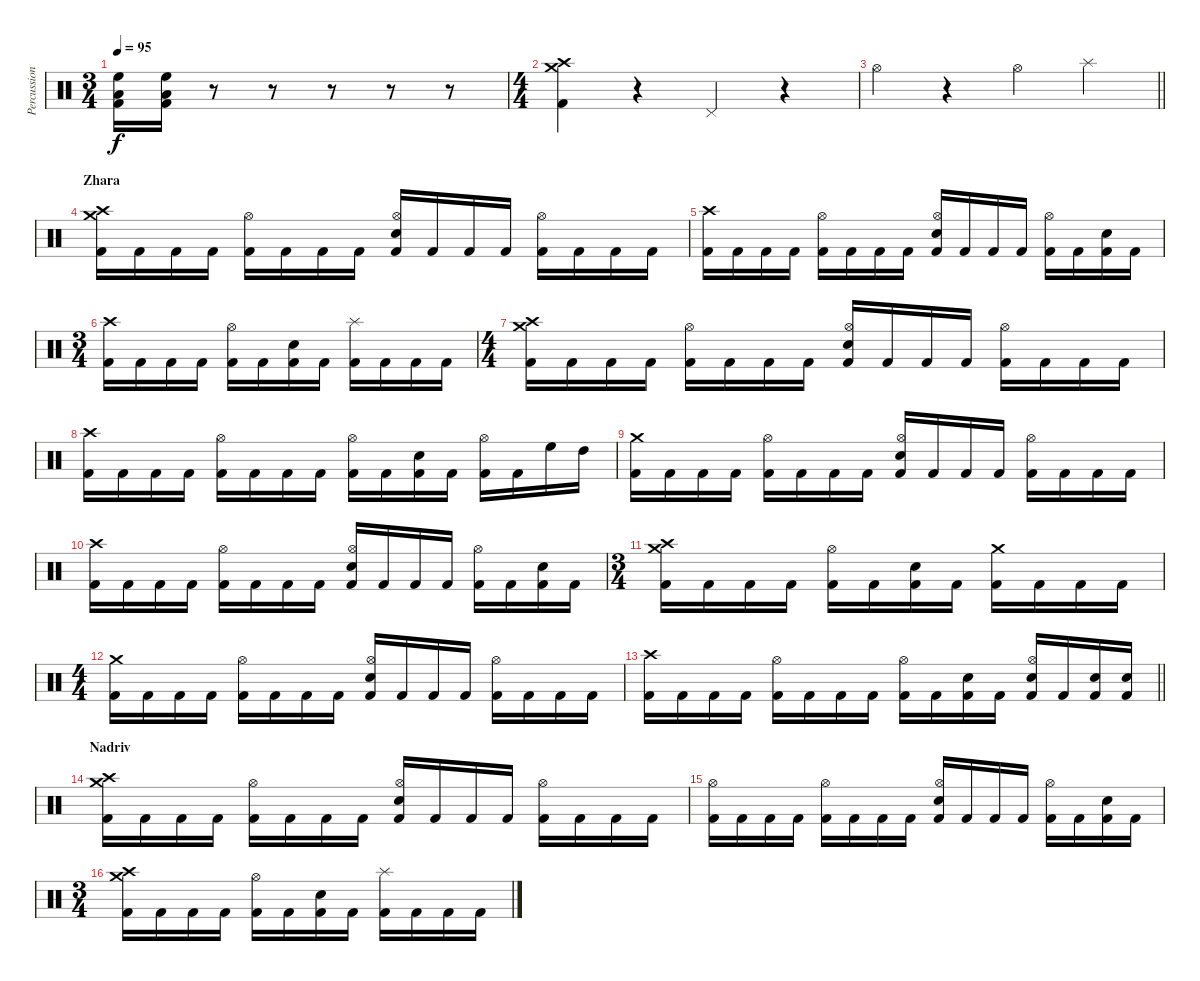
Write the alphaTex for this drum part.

\track ("Percussion" "Percussion") {instrument percussion}
\staff {score}
\articulation defaults
\ts (3 4)
\tempo 95
\clef neutral
\ks c
("High Floor Tom (hit)" "Low Tom (hit)" "Kick (hit) 2").16{dy f} ("High Floor Tom (hit)" "Low Tom (hit)" "Kick (hit) 2").16 r.8 r.8 r.8 r.8 r.8 |
\ts (4 4)
("Crash medium (hit)" "Crash high (hit)" "Kick (hit) 2").4 r.4 "Pedal Hi-Hat (hit)".4 r.4 |
\barLineRight lightlight "Hi-Hat (open)".4
r.4 "Hi-Hat (open)".4 "Splash (hit)".4 |
\section ("" "Zhara")
("Crash high (hit)" "Crash medium (hit)" "Kick (hit) 2").16 "Kick (hit) 2".16 "Kick (hit) 2".16 "Kick (hit) 2".16 ("Hi-Hat (open)" "Kick (hit) 2").16 "Kick (hit) 2".16 "Kick (hit) 2".16 "Kick (hit) 2".16 ("Hi-Hat (open)" "Electric Snare (hit)" "Kick (hit) 2").16 "Kick (hit) 2".16 "Kick (hit) 2".16 "Kick (hit) 2".16 ("Hi-Hat (open)" "Kick (hit) 2").16 "Kick (hit) 2".16 "Kick (hit) 2".16 "Kick (hit) 2".16 |
("Crash high (hit)" "Kick (hit) 2").16 "Kick (hit) 2".16 "Kick (hit) 2".16 "Kick (hit) 2".16 ("Hi-Hat (open)" "Kick (hit) 2").16 "Kick (hit) 2".16 "Kick (hit) 2".16 "Kick (hit) 2".16 ("Hi-Hat (open)" "Electric Snare (hit)" "Kick (hit) 2").16 "Kick (hit) 2".16 "Kick (hit) 2".16 "Kick (hit) 2".16 ("Hi-Hat (open)" "Kick (hit) 2").16 "Kick (hit) 2".16 ("Electric Snare (hit)" "Kick (hit) 2").16 "Kick (hit) 2".16 |
\ts (3 4)
("Crash high (hit)" "Kick (hit) 2").16 "Kick (hit) 2".16 "Kick (hit) 2".16 "Kick (hit) 2".16 ("Hi-Hat (open)" "Kick (hit) 2").16 "Kick (hit) 2".16 ("Electric Snare (hit)" "Kick (hit) 2").16 "Kick (hit) 2".16 ("Splash (hit)" "Kick (hit) 2").16 "Kick (hit) 2".16 "Kick (hit) 2".16 "Kick (hit) 2".16 |
\ts (4 4)
("Crash medium (hit)" "Crash high (hit)" "Kick (hit) 2").16 "Kick (hit) 2".16 "Kick (hit) 2".16 "Kick (hit) 2".16 ("Hi-Hat (open)" "Kick (hit) 2").16 "Kick (hit) 2".16 "Kick (hit) 2".16 "Kick (hit) 2".16 ("Hi-Hat (open)" "Electric Snare (hit)" "Kick (hit) 2").16 "Kick (hit) 2".16 "Kick (hit) 2".16 "Kick (hit) 2".16 ("Hi-Hat (open)" "Kick (hit) 2").16 "Kick (hit) 2".16 "Kick (hit) 2".16 "Kick (hit) 2".16 |
("Crash high (hit)" "Kick (hit) 2").16 "Kick (hit) 2".16 "Kick (hit) 2".16 "Kick (hit) 2".16 ("Hi-Hat (open)" "Kick (hit) 2").16 "Kick (hit) 2".16 "Kick (hit) 2".16 "Kick (hit) 2".16 ("Hi-Hat (open)" "Kick (hit) 2").16 "Kick (hit) 2".16 ("Electric Snare (hit)" "Kick (hit) 2").16 "Kick (hit) 2".16 ("Hi-Hat (open)" "Kick (hit) 2").16 "Kick (hit) 2".16 "High Floor Tom (hit)".16 "High Tom (hit)".16 |
("Crash medium (hit)" "Kick (hit) 2").16 "Kick (hit) 2".16 "Kick (hit) 2".16 "Kick (hit) 2".16 ("Hi-Hat (open)" "Kick (hit) 2").16 "Kick (hit) 2".16 "Kick (hit) 2".16 "Kick (hit) 2".16 ("Hi-Hat (open)" "Electric Snare (hit)" "Kick (hit) 2").16 "Kick (hit) 2".16 "Kick (hit) 2".16 "Kick (hit) 2".16 ("Hi-Hat (open)" "Kick (hit) 2").16 "Kick (hit) 2".16 "Kick (hit) 2".16 "Kick (hit) 2".16 |
("Crash high (hit)" "Kick (hit) 2").16 "Kick (hit) 2".16 "Kick (hit) 2".16 "Kick (hit) 2".16 ("Hi-Hat (open)" "Kick (hit) 2").16 "Kick (hit) 2".16 "Kick (hit) 2".16 "Kick (hit) 2".16 ("Hi-Hat (open)" "Electric Snare (hit)" "Kick (hit) 2").16 "Kick (hit) 2".16 "Kick (hit) 2".16 "Kick (hit) 2".16 ("Hi-Hat (open)" "Kick (hit) 2").16 "Kick (hit) 2".16 ("Electric Snare (hit)" "Kick (hit) 2").16 "Kick (hit) 2".16 |
\ts (3 4)
("Crash high (hit)" "Crash medium (hit)" "Kick (hit) 2").16 "Kick (hit) 2".16 "Kick (hit) 2".16 "Kick (hit) 2".16 ("Hi-Hat (open)" "Kick (hit) 2").16 "Kick (hit) 2".16 ("Electric Snare (hit)" "Kick (hit) 2").16 "Kick (hit) 2".16 ("Crash medium (hit)" "Kick (hit) 2").16 "Kick (hit) 2".16 "Kick (hit) 2".16 "Kick (hit) 2".16 |
\ts (4 4)
("Crash medium (hit)" "Kick (hit) 2").16 "Kick (hit) 2".16 "Kick (hit) 2".16 "Kick (hit) 2".16 ("Hi-Hat (open)" "Kick (hit) 2").16 "Kick (hit) 2".16 "Kick (hit) 2".16 "Kick (hit) 2".16 ("Hi-Hat (open)" "Electric Snare (hit)" "Kick (hit) 2").16 "Kick (hit) 2".16 "Kick (hit) 2".16 "Kick (hit) 2".16 ("Hi-Hat (open)" "Kick (hit) 2").16 "Kick (hit) 2".16 "Kick (hit) 2".16 "Kick (hit) 2".16 |
\barLineRight lightlight
("Crash high (hit)" "Kick (hit) 2").16 "Kick (hit) 2".16 "Kick (hit) 2".16 "Kick (hit) 2".16 ("Hi-Hat (open)" "Kick (hit) 2").16 "Kick (hit) 2".16 "Kick (hit) 2".16 "Kick (hit) 2".16 ("Hi-Hat (open)" "Kick (hit) 2").16 "Kick (hit) 2".16 ("Electric Snare (hit)" "Kick (hit) 2").16 "Kick (hit) 2".16 ("Hi-Hat (open)" "Electric Snare (hit)" "Kick (hit) 2").16 "Kick (hit) 2".16 ("Electric Snare (hit)" "Kick (hit) 2").16 ("Electric Snare (hit)" "Kick (hit) 2").16 |
\section ("" "Nadriv")
("Crash high (hit)" "Crash medium (hit)" "Kick (hit) 2").16 "Kick (hit) 2".16 "Kick (hit) 2".16 "Kick (hit) 2".16 ("Hi-Hat (open)" "Kick (hit) 2").16 "Kick (hit) 2".16 "Kick (hit) 2".16 "Kick (hit) 2".16 ("Hi-Hat (open)" "Electric Snare (hit)" "Kick (hit) 2").16 "Kick (hit) 2".16 "Kick (hit) 2".16 "Kick (hit) 2".16 ("Hi-Hat (open)" "Kick (hit) 2").16 "Kick (hit) 2".16 "Kick (hit) 2".16 "Kick (hit) 2".16 |
("Hi-Hat (open)" "Kick (hit) 2").16 "Kick (hit) 2".16 "Kick (hit) 2".16 "Kick (hit) 2".16 ("Hi-Hat (open)" "Kick (hit) 2").16 "Kick (hit) 2".16 "Kick (hit) 2".16 "Kick (hit) 2".16 ("Hi-Hat (open)" "Electric Snare (hit)" "Kick (hit) 2").16 "Kick (hit) 2".16 "Kick (hit) 2".16 "Kick (hit) 2".16 ("Hi-Hat (open)" "Kick (hit) 2").16 "Kick (hit) 2".16 ("Electric Snare (hit)" "Kick (hit) 2").16 "Kick (hit) 2".16 |
\ts (3 4)
("Crash high (hit)" "Crash medium (hit)" "Kick (hit) 2").16 "Kick (hit) 2".16 "Kick (hit) 2".16 "Kick (hit) 2".16 ("Hi-Hat (open)" "Kick (hit) 2").16 "Kick (hit) 2".16 ("Electric Snare (hit)" "Kick (hit) 2").16 "Kick (hit) 2".16 ("Splash (hit)" "Kick (hit) 2").16 "Kick (hit) 2".16 "Kick (hit) 2".16 "Kick (hit) 2".16
